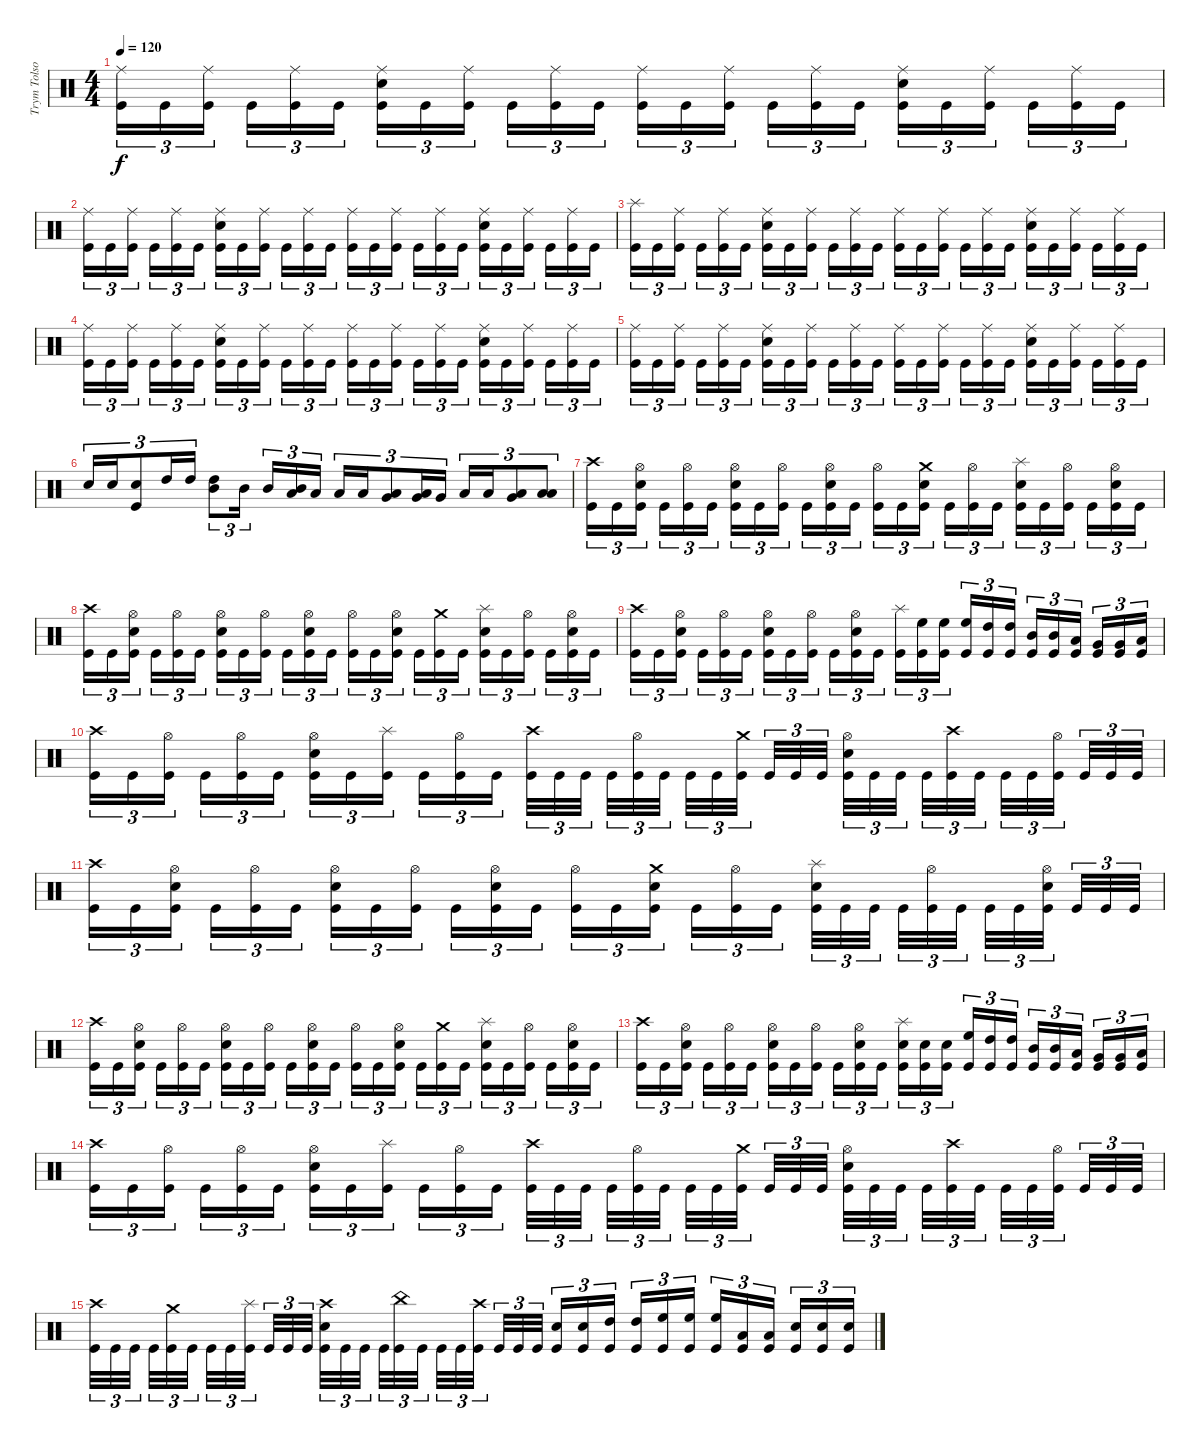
\track ("Trym Tolson" "Trym Tolso") {instrument percussion}
\staff {score}
\articulation defaults
\ts (4 4)
\tempo 120
\clef neutral
\ks c
("Ride (middle)" "Kick (hit)").16{tu (3 2) dy f} "Kick (hit)".16{tu (3 2)} ("Ride (middle)" "Kick (hit)").16{tu (3 2)} "Kick (hit)".16{tu (3 2)} ("Ride (middle)" "Kick (hit)").16{tu (3 2)} "Kick (hit)".16{tu (3 2)} ("Ride (middle)" "Electric Snare (hit)" "Kick (hit)").16{tu (3 2)} "Kick (hit)".16{tu (3 2)} ("Ride (middle)" "Kick (hit)").16{tu (3 2)} "Kick (hit)".16{tu (3 2)} ("Ride (middle)" "Kick (hit)").16{tu (3 2)} "Kick (hit)".16{tu (3 2)} ("Ride (middle)" "Kick (hit)").16{tu (3 2)} "Kick (hit)".16{tu (3 2)} ("Ride (middle)" "Kick (hit)").16{tu (3 2)} "Kick (hit)".16{tu (3 2)} ("Ride (middle)" "Kick (hit)").16{tu (3 2)} "Kick (hit)".16{tu (3 2)} ("Ride (middle)" "Electric Snare (hit)" "Kick (hit)").16{tu (3 2)} "Kick (hit)".16{tu (3 2)} ("Ride (middle)" "Kick (hit)").16{tu (3 2)} "Kick (hit)".16{tu (3 2)} ("Ride (middle)" "Kick (hit)").16{tu (3 2)} "Kick (hit)".16{tu (3 2)} |
("Ride (middle)" "Kick (hit)").16{tu (3 2)} "Kick (hit)".16{tu (3 2)} ("Ride (middle)" "Kick (hit)").16{tu (3 2)} "Kick (hit)".16{tu (3 2)} ("Ride (middle)" "Kick (hit)").16{tu (3 2)} "Kick (hit)".16{tu (3 2)} ("Ride (middle)" "Electric Snare (hit)" "Kick (hit)").16{tu (3 2)} "Kick (hit)".16{tu (3 2)} ("Ride (middle)" "Kick (hit)").16{tu (3 2)} "Kick (hit)".16{tu (3 2)} ("Ride (middle)" "Kick (hit)").16{tu (3 2)} "Kick (hit)".16{tu (3 2)} ("Ride (middle)" "Kick (hit)").16{tu (3 2)} "Kick (hit)".16{tu (3 2)} ("Ride (middle)" "Kick (hit)").16{tu (3 2)} "Kick (hit)".16{tu (3 2)} ("Ride (middle)" "Kick (hit)").16{tu (3 2)} "Kick (hit)".16{tu (3 2)} ("Ride (middle)" "Electric Snare (hit)" "Kick (hit)").16{tu (3 2)} "Kick (hit)".16{tu (3 2)} ("Ride (middle)" "Kick (hit)").16{tu (3 2)} "Kick (hit)".16{tu (3 2)} ("Ride (middle)" "Kick (hit)").16{tu (3 2)} "Kick (hit)".16{tu (3 2)} |
("Splash (hit)" "Kick (hit)").16{tu (3 2)} "Kick (hit)".16{tu (3 2)} ("Ride (middle)" "Kick (hit)").16{tu (3 2)} "Kick (hit)".16{tu (3 2)} ("Ride (middle)" "Kick (hit)").16{tu (3 2)} "Kick (hit)".16{tu (3 2)} ("Ride (middle)" "Electric Snare (hit)" "Kick (hit)").16{tu (3 2)} "Kick (hit)".16{tu (3 2)} ("Ride (middle)" "Kick (hit)").16{tu (3 2)} "Kick (hit)".16{tu (3 2)} ("Ride (middle)" "Kick (hit)").16{tu (3 2)} "Kick (hit)".16{tu (3 2)} ("Ride (middle)" "Kick (hit)").16{tu (3 2)} "Kick (hit)".16{tu (3 2)} ("Ride (middle)" "Kick (hit)").16{tu (3 2)} "Kick (hit)".16{tu (3 2)} ("Ride (middle)" "Kick (hit)").16{tu (3 2)} "Kick (hit)".16{tu (3 2)} ("Ride (middle)" "Electric Snare (hit)" "Kick (hit)").16{tu (3 2)} "Kick (hit)".16{tu (3 2)} ("Ride (middle)" "Kick (hit)").16{tu (3 2)} "Kick (hit)".16{tu (3 2)} ("Ride (middle)" "Kick (hit)").16{tu (3 2)} "Kick (hit)".16{tu (3 2)} |
("Ride (middle)" "Kick (hit)").16{tu (3 2)} "Kick (hit)".16{tu (3 2)} ("Ride (middle)" "Kick (hit)").16{tu (3 2)} "Kick (hit)".16{tu (3 2)} ("Ride (middle)" "Kick (hit)").16{tu (3 2)} "Kick (hit)".16{tu (3 2)} ("Ride (middle)" "Electric Snare (hit)" "Kick (hit)").16{tu (3 2)} "Kick (hit)".16{tu (3 2)} ("Ride (middle)" "Kick (hit)").16{tu (3 2)} "Kick (hit)".16{tu (3 2)} ("Ride (middle)" "Kick (hit)").16{tu (3 2)} "Kick (hit)".16{tu (3 2)} ("Ride (middle)" "Kick (hit)").16{tu (3 2)} "Kick (hit)".16{tu (3 2)} ("Ride (middle)" "Kick (hit)").16{tu (3 2)} "Kick (hit)".16{tu (3 2)} ("Ride (middle)" "Kick (hit)").16{tu (3 2)} "Kick (hit)".16{tu (3 2)} ("Ride (middle)" "Electric Snare (hit)" "Kick (hit)").16{tu (3 2)} "Kick (hit)".16{tu (3 2)} ("Ride (middle)" "Kick (hit)").16{tu (3 2)} "Kick (hit)".16{tu (3 2)} ("Ride (middle)" "Kick (hit)").16{tu (3 2)} "Kick (hit)".16{tu (3 2)} |
("Ride (middle)" "Kick (hit)").16{tu (3 2)} "Kick (hit)".16{tu (3 2)} ("Ride (middle)" "Kick (hit)").16{tu (3 2)} "Kick (hit)".16{tu (3 2)} ("Ride (middle)" "Kick (hit)").16{tu (3 2)} "Kick (hit)".16{tu (3 2)} ("Ride (middle)" "Electric Snare (hit)" "Kick (hit)").16{tu (3 2)} "Kick (hit)".16{tu (3 2)} ("Ride (middle)" "Kick (hit)").16{tu (3 2)} "Kick (hit)".16{tu (3 2)} ("Ride (middle)" "Kick (hit)").16{tu (3 2)} "Kick (hit)".16{tu (3 2)} ("Ride (middle)" "Kick (hit)").16{tu (3 2)} "Kick (hit)".16{tu (3 2)} ("Ride (middle)" "Kick (hit)").16{tu (3 2)} "Kick (hit)".16{tu (3 2)} ("Ride (middle)" "Kick (hit)").16{tu (3 2)} "Kick (hit)".16{tu (3 2)} ("Ride (middle)" "Electric Snare (hit)" "Kick (hit)").16{tu (3 2)} "Kick (hit)".16{tu (3 2)} ("Ride (middle)" "Kick (hit)").16{tu (3 2)} "Kick (hit)".16{tu (3 2)} ("Ride (middle)" "Kick (hit)").16{tu (3 2)} "Kick (hit)".16{tu (3 2)} |
"Electric Snare (hit)".16{tu (3 2)} "Electric Snare (hit)".16{tu (3 2)} ("Electric Snare (hit)" "Kick (hit)").8{tu (3 2)} "High Tom (hit)".16{tu (3 2)} "High Tom (hit)".16{tu (3 2)} ("Mid Tom (hit)" "High Tom (hit)").8{tu (3 2)} "Mid Tom (hit)".16{tu (3 2)} "Mid Tom (hit)".16{tu (3 2)} ("Low Tom (hit)" "Mid Tom (hit)").16{tu (3 2)} "Low Tom (hit)".16{tu (3 2)} "Low Tom (hit)".16{tu (3 2)} "Low Tom (hit)".16{tu (3 2)} ("Very Low Tom (hit)" "Low Tom (hit)").8{tu (3 2)} ("Very Low Tom (hit)" "Low Tom (hit)").16{tu (3 2)} "Very Low Tom (hit)".16{tu (3 2)} "Low Floor Tom (hit)".16{tu (3 2)} "Low Floor Tom (hit)".16{tu (3 2)} ("Low Floor Tom (hit)" "Very Low Tom (hit)").8{tu (3 2)} ("Low Floor Tom (hit)" "Low Floor Tom (hit)").8{tu (3 2)} |
("Crash high (hit)" "Kick (hit)").16{tu (3 2)} "Kick (hit)".16{tu (3 2)} ("Hi-Hat (open)" "Electric Snare (hit)" "Kick (hit)").16{tu (3 2)} "Kick (hit)".16{tu (3 2)} ("Hi-Hat (open)" "Kick (hit)").16{tu (3 2)} "Kick (hit)".16{tu (3 2)} ("Hi-Hat (open)" "Electric Snare (hit)" "Kick (hit)").16{tu (3 2)} "Kick (hit)".16{tu (3 2)} ("Hi-Hat (open)" "Kick (hit)").16{tu (3 2)} "Kick (hit)".16{tu (3 2)} ("Hi-Hat (open)" "Electric Snare (hit)" "Kick (hit)").16{tu (3 2)} "Kick (hit)".16{tu (3 2)} ("Hi-Hat (open)" "Kick (hit)").16{tu (3 2)} "Kick (hit)".16{tu (3 2)} ("Crash medium (hit)" "Electric Snare (hit)" "Kick (hit)").16{tu (3 2)} "Kick (hit)".16{tu (3 2)} ("Hi-Hat (open)" "Kick (hit)").16{tu (3 2)} "Kick (hit)".16{tu (3 2)} ("Splash (hit)" "Electric Snare (hit)" "Kick (hit)").16{tu (3 2)} "Kick (hit)".16{tu (3 2)} ("Hi-Hat (open)" "Kick (hit)").16{tu (3 2)} "Kick (hit)".16{tu (3 2)} ("Hi-Hat (open)" "Electric Snare (hit)" "Kick (hit)").16{tu (3 2)} "Kick (hit)".16{tu (3 2)} |
("Crash high (hit)" "Kick (hit)").16{tu (3 2)} "Kick (hit)".16{tu (3 2)} ("Hi-Hat (open)" "Electric Snare (hit)" "Kick (hit)").16{tu (3 2)} "Kick (hit)".16{tu (3 2)} ("Hi-Hat (open)" "Kick (hit)").16{tu (3 2)} "Kick (hit)".16{tu (3 2)} ("Hi-Hat (open)" "Electric Snare (hit)" "Kick (hit)").16{tu (3 2)} "Kick (hit)".16{tu (3 2)} ("Hi-Hat (open)" "Kick (hit)").16{tu (3 2)} "Kick (hit)".16{tu (3 2)} ("Hi-Hat (open)" "Electric Snare (hit)" "Kick (hit)").16{tu (3 2)} "Kick (hit)".16{tu (3 2)} ("Hi-Hat (open)" "Kick (hit)").16{tu (3 2)} "Kick (hit)".16{tu (3 2)} ("Hi-Hat (open)" "Electric Snare (hit)" "Kick (hit)").16{tu (3 2)} "Kick (hit)".16{tu (3 2)} ("Crash medium (hit)" "Kick (hit)").16{tu (3 2)} "Kick (hit)".16{tu (3 2)} ("Splash (hit)" "Electric Snare (hit)" "Kick (hit)").16{tu (3 2)} "Kick (hit)".16{tu (3 2)} ("Hi-Hat (open)" "Kick (hit)").16{tu (3 2)} "Kick (hit)".16{tu (3 2)} ("Hi-Hat (open)" "Electric Snare (hit)" "Kick (hit)").16{tu (3 2)} "Kick (hit)".16{tu (3 2)} |
("Crash high (hit)" "Kick (hit)").16{tu (3 2)} "Kick (hit)".16{tu (3 2)} ("Hi-Hat (open)" "Electric Snare (hit)" "Kick (hit)").16{tu (3 2)} "Kick (hit)".16{tu (3 2)} ("Hi-Hat (open)" "Kick (hit)").16{tu (3 2)} "Kick (hit)".16{tu (3 2)} ("Hi-Hat (open)" "Electric Snare (hit)" "Kick (hit)").16{tu (3 2)} "Kick (hit)".16{tu (3 2)} ("Hi-Hat (open)" "Kick (hit)").16{tu (3 2)} "Kick (hit)".16{tu (3 2)} ("Hi-Hat (open)" "Electric Snare (hit)" "Kick (hit)").16{tu (3 2)} "Kick (hit)".16{tu (3 2)} ("Splash (hit)" "Kick (hit)").16{tu (3 2)} ("High Floor Tom (hit)" "Kick (hit)").16{tu (3 2)} ("High Floor Tom (hit)" "Kick (hit)").16{tu (3 2)} ("High Floor Tom (hit)" "Kick (hit)").16{tu (3 2)} ("High Tom (hit)" "Kick (hit)").16{tu (3 2)} ("High Tom (hit)" "Kick (hit)").16{tu (3 2)} ("Mid Tom (hit)" "Kick (hit)").16{tu (3 2)} ("Mid Tom (hit)" "Kick (hit)").16{tu (3 2)} ("Low Tom (hit)" "Kick (hit)").16{tu (3 2)} ("Very Low Tom (hit)" "Kick (hit)").16{tu (3 2)} ("Very Low Tom (hit)" "Kick (hit)").16{tu (3 2)} ("Low Floor Tom (hit)" "Kick (hit)").16{tu (3 2)} |
("Crash high (hit)" "Kick (hit)").16{tu (3 2)} "Kick (hit)".16{tu (3 2)} ("Hi-Hat (open)" "Kick (hit)").16{tu (3 2)} "Kick (hit)".16{tu (3 2)} ("Hi-Hat (open)" "Kick (hit)").16{tu (3 2)} "Kick (hit)".16{tu (3 2)} ("Hi-Hat (open)" "Electric Snare (hit)" "Kick (hit)").16{tu (3 2)} "Kick (hit)".16{tu (3 2)} ("Splash (hit)" "Kick (hit)").16{tu (3 2)} "Kick (hit)".16{tu (3 2)} ("Hi-Hat (open)" "Kick (hit)").16{tu (3 2)} "Kick (hit)".16{tu (3 2)} ("Crash high (hit)" "Kick (hit)").32{tu (3 2)} "Kick (hit)".32{tu (3 2)} "Kick (hit)".32{tu (3 2)} "Kick (hit)".32{tu (3 2)} ("Hi-Hat (open)" "Kick (hit)").32{tu (3 2)} "Kick (hit)".32{tu (3 2)} "Kick (hit)".32{tu (3 2)} "Kick (hit)".32{tu (3 2)} ("Crash medium (hit)" "Kick (hit)").32{tu (3 2)} "Kick (hit)".32{tu (3 2)} "Kick (hit)".32{tu (3 2)} "Kick (hit)".32{tu (3 2)} ("Hi-Hat (open)" "Electric Snare (hit)" "Kick (hit)").32{tu (3 2)} "Kick (hit)".32{tu (3 2)} "Kick (hit)".32{tu (3 2)} "Kick (hit)".32{tu (3 2)} ("Crash high (hit)" "Kick (hit)").32{tu (3 2)} "Kick (hit)".32{tu (3 2)} "Kick (hit)".32{tu (3 2)} "Kick (hit)".32{tu (3 2)} ("Hi-Hat (open)" "Kick (hit)").32{tu (3 2)} "Kick (hit)".32{tu (3 2)} "Kick (hit)".32{tu (3 2)} "Kick (hit)".32{tu (3 2)} |
("Crash high (hit)" "Kick (hit)").16{tu (3 2)} "Kick (hit)".16{tu (3 2)} ("Hi-Hat (open)" "Electric Snare (hit)" "Kick (hit)").16{tu (3 2)} "Kick (hit)".16{tu (3 2)} ("Hi-Hat (open)" "Kick (hit)").16{tu (3 2)} "Kick (hit)".16{tu (3 2)} ("Hi-Hat (open)" "Electric Snare (hit)" "Kick (hit)").16{tu (3 2)} "Kick (hit)".16{tu (3 2)} ("Hi-Hat (open)" "Kick (hit)").16{tu (3 2)} "Kick (hit)".16{tu (3 2)} ("Hi-Hat (open)" "Electric Snare (hit)" "Kick (hit)").16{tu (3 2)} "Kick (hit)".16{tu (3 2)} ("Hi-Hat (open)" "Kick (hit)").16{tu (3 2)} "Kick (hit)".16{tu (3 2)} ("Crash medium (hit)" "Electric Snare (hit)" "Kick (hit)").16{tu (3 2)} "Kick (hit)".16{tu (3 2)} ("Hi-Hat (open)" "Kick (hit)").16{tu (3 2)} "Kick (hit)".16{tu (3 2)} ("Splash (hit)" "Electric Snare (hit)" "Kick (hit)").32{tu (3 2)} "Kick (hit)".32{tu (3 2)} "Kick (hit)".32{tu (3 2)} "Kick (hit)".32{tu (3 2)} ("Hi-Hat (open)" "Kick (hit)").32{tu (3 2)} "Kick (hit)".32{tu (3 2)} "Kick (hit)".32{tu (3 2)} "Kick (hit)".32{tu (3 2)} ("Hi-Hat (open)" "Electric Snare (hit)" "Kick (hit)").32{tu (3 2)} "Kick (hit)".32{tu (3 2)} "Kick (hit)".32{tu (3 2)} "Kick (hit)".32{tu (3 2)} |
("Crash high (hit)" "Kick (hit)").16{tu (3 2)} "Kick (hit)".16{tu (3 2)} ("Hi-Hat (open)" "Electric Snare (hit)" "Kick (hit)").16{tu (3 2)} "Kick (hit)".16{tu (3 2)} ("Hi-Hat (open)" "Kick (hit)").16{tu (3 2)} "Kick (hit)".16{tu (3 2)} ("Hi-Hat (open)" "Electric Snare (hit)" "Kick (hit)").16{tu (3 2)} "Kick (hit)".16{tu (3 2)} ("Hi-Hat (open)" "Kick (hit)").16{tu (3 2)} "Kick (hit)".16{tu (3 2)} ("Hi-Hat (open)" "Electric Snare (hit)" "Kick (hit)").16{tu (3 2)} "Kick (hit)".16{tu (3 2)} ("Hi-Hat (open)" "Kick (hit)").16{tu (3 2)} "Kick (hit)".16{tu (3 2)} ("Hi-Hat (open)" "Electric Snare (hit)" "Kick (hit)").16{tu (3 2)} "Kick (hit)".16{tu (3 2)} ("Crash medium (hit)" "Kick (hit)").16{tu (3 2)} "Kick (hit)".16{tu (3 2)} ("Splash (hit)" "Electric Snare (hit)" "Kick (hit)").16{tu (3 2)} "Kick (hit)".16{tu (3 2)} ("Hi-Hat (open)" "Kick (hit)").16{tu (3 2)} "Kick (hit)".16{tu (3 2)} ("Hi-Hat (open)" "Electric Snare (hit)" "Kick (hit)").16{tu (3 2)} "Kick (hit)".16{tu (3 2)} |
("Crash high (hit)" "Kick (hit)").16{tu (3 2)} "Kick (hit)".16{tu (3 2)} ("Hi-Hat (open)" "Electric Snare (hit)" "Kick (hit)").16{tu (3 2)} "Kick (hit)".16{tu (3 2)} ("Hi-Hat (open)" "Kick (hit)").16{tu (3 2)} "Kick (hit)".16{tu (3 2)} ("Hi-Hat (open)" "Electric Snare (hit)" "Kick (hit)").16{tu (3 2)} "Kick (hit)".16{tu (3 2)} ("Hi-Hat (open)" "Kick (hit)").16{tu (3 2)} "Kick (hit)".16{tu (3 2)} ("Hi-Hat (open)" "Electric Snare (hit)" "Kick (hit)").16{tu (3 2)} "Kick (hit)".16{tu (3 2)} ("Splash (hit)" "Electric Snare (hit)" "Kick (hit)").16{tu (3 2)} ("Electric Snare (hit)" "Kick (hit)").16{tu (3 2)} ("Electric Snare (hit)" "Kick (hit)").16{tu (3 2)} ("High Floor Tom (hit)" "Kick (hit)").16{tu (3 2)} ("High Tom (hit)" "Kick (hit)").16{tu (3 2)} ("High Tom (hit)" "Kick (hit)").16{tu (3 2)} ("Mid Tom (hit)" "Kick (hit)").16{tu (3 2)} ("Mid Tom (hit)" "Kick (hit)").16{tu (3 2)} ("Low Tom (hit)" "Kick (hit)").16{tu (3 2)} ("Very Low Tom (hit)" "Kick (hit)").16{tu (3 2)} ("Very Low Tom (hit)" "Kick (hit)").16{tu (3 2)} ("Low Floor Tom (hit)" "Kick (hit)").16{tu (3 2)} |
("Crash high (hit)" "Kick (hit)").16{tu (3 2)} "Kick (hit)".16{tu (3 2)} ("Hi-Hat (open)" "Kick (hit)").16{tu (3 2)} "Kick (hit)".16{tu (3 2)} ("Hi-Hat (open)" "Kick (hit)").16{tu (3 2)} "Kick (hit)".16{tu (3 2)} ("Hi-Hat (open)" "Electric Snare (hit)" "Kick (hit)").16{tu (3 2)} "Kick (hit)".16{tu (3 2)} ("Splash (hit)" "Kick (hit)").16{tu (3 2)} "Kick (hit)".16{tu (3 2)} ("Hi-Hat (open)" "Kick (hit)").16{tu (3 2)} "Kick (hit)".16{tu (3 2)} ("Crash high (hit)" "Kick (hit)").32{tu (3 2)} "Kick (hit)".32{tu (3 2)} "Kick (hit)".32{tu (3 2)} "Kick (hit)".32{tu (3 2)} ("Hi-Hat (open)" "Kick (hit)").32{tu (3 2)} "Kick (hit)".32{tu (3 2)} "Kick (hit)".32{tu (3 2)} "Kick (hit)".32{tu (3 2)} ("Crash medium (hit)" "Kick (hit)").32{tu (3 2)} "Kick (hit)".32{tu (3 2)} "Kick (hit)".32{tu (3 2)} "Kick (hit)".32{tu (3 2)} ("Hi-Hat (open)" "Electric Snare (hit)" "Kick (hit)").32{tu (3 2)} "Kick (hit)".32{tu (3 2)} "Kick (hit)".32{tu (3 2)} "Kick (hit)".32{tu (3 2)} ("Crash high (hit)" "Kick (hit)").32{tu (3 2)} "Kick (hit)".32{tu (3 2)} "Kick (hit)".32{tu (3 2)} "Kick (hit)".32{tu (3 2)} ("Hi-Hat (open)" "Kick (hit)").32{tu (3 2)} "Kick (hit)".32{tu (3 2)} "Kick (hit)".32{tu (3 2)} "Kick (hit)".32{tu (3 2)} |
("Crash high (hit)" "Kick (hit)").32{tu (3 2)} "Kick (hit)".32{tu (3 2)} "Kick (hit)".32{tu (3 2)} "Kick (hit)".32{tu (3 2)} ("Crash medium (hit)" "Kick (hit)").32{tu (3 2)} "Kick (hit)".32{tu (3 2)} "Kick (hit)".32{tu (3 2)} "Kick (hit)".32{tu (3 2)} ("Splash (hit)" "Kick (hit)").32{tu (3 2)} "Kick (hit)".32{tu (3 2)} "Kick (hit)".32{tu (3 2)} "Kick (hit)".32{tu (3 2)} ("Crash high (hit)" "Electric Snare (hit)" "Kick (hit)").32{tu (3 2)} "Kick (hit)".32{tu (3 2)} "Kick (hit)".32{tu (3 2)} "Kick (hit)".32{tu (3 2)} ("China (hit)" "Kick (hit)").32{tu (3 2)} "Kick (hit)".32{tu (3 2)} "Kick (hit)".32{tu (3 2)} "Kick (hit)".32{tu (3 2)} ("Crash high (hit)" "Kick (hit)").32{tu (3 2)} "Kick (hit)".32{tu (3 2)} "Kick (hit)".32{tu (3 2)} "Kick (hit)".32{tu (3 2)} ("Electric Snare (hit)" "Kick (hit)").16{tu (3 2)} ("Electric Snare (hit)" "Kick (hit)").16{tu (3 2)} ("High Tom (hit)" "Kick (hit)").16{tu (3 2)} ("High Tom (hit)" "Kick (hit)").16{tu (3 2)} ("High Floor Tom (hit)" "Kick (hit)").16{tu (3 2)} ("High Floor Tom (hit)" "Kick (hit)").16{tu (3 2)} ("High Floor Tom (hit)" "Kick (hit)").16{tu (3 2)} ("Low Tom (hit)" "Kick (hit)").16{tu (3 2)} ("Low Tom (hit)" "Kick (hit)").16{tu (3 2)} ("Electric Snare (hit)" "Kick (hit)").16{tu (3 2)} ("Electric Snare (hit)" "Kick (hit)").16{tu (3 2)} ("Electric Snare (hit)" "Kick (hit)").16{tu (3 2)}
